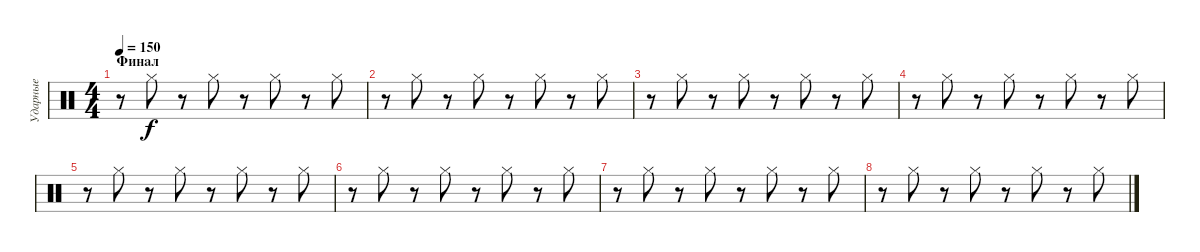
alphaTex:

\track ("Ударные" "Ударные") {instrument percussion}
\staff {score}
\articulation defaults
\ts (4 4)
\section ("" "Финал")
\tempo 150
\clef neutral
\ks c
r.8{dy f} "Hi-Hat (closed)".8 r.8 "Hi-Hat (closed)".8 r.8 "Hi-Hat (closed)".8 r.8 "Hi-Hat (closed)".8 |
r.8 "Hi-Hat (closed)".8 r.8 "Hi-Hat (closed)".8 r.8 "Hi-Hat (closed)".8 r.8 "Hi-Hat (closed)".8 |
r.8 "Hi-Hat (closed)".8 r.8 "Hi-Hat (closed)".8 r.8 "Hi-Hat (closed)".8 r.8 "Hi-Hat (closed)".8 |
r.8 "Hi-Hat (closed)".8 r.8 "Hi-Hat (closed)".8 r.8 "Hi-Hat (closed)".8 r.8 "Hi-Hat (closed)".8 |
r.8 "Hi-Hat (closed)".8 r.8 "Hi-Hat (closed)".8 r.8 "Hi-Hat (closed)".8 r.8 "Hi-Hat (closed)".8 |
r.8 "Hi-Hat (closed)".8 r.8 "Hi-Hat (closed)".8 r.8 "Hi-Hat (closed)".8 r.8 "Hi-Hat (closed)".8 |
r.8 "Hi-Hat (closed)".8 r.8 "Hi-Hat (closed)".8 r.8 "Hi-Hat (closed)".8 r.8 "Hi-Hat (closed)".8 |
r.8 "Hi-Hat (closed)".8 r.8 "Hi-Hat (closed)".8 r.8 "Hi-Hat (closed)".8 r.8 "Hi-Hat (closed)".8
